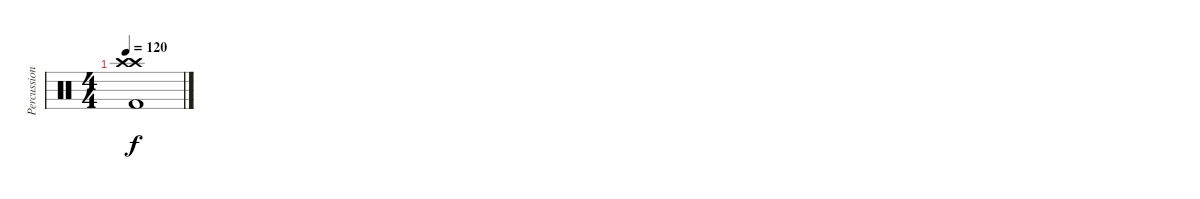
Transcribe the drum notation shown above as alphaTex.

\track ("Percussions" "Percussion") {instrument percussion}
\staff {score}
\articulation defaults
\ts (4 4)
\tempo 120
\clef neutral
\ks c
("Crash high (hit)" "Crash high (hit)" "Kick (hit) 2").1{dy f}
